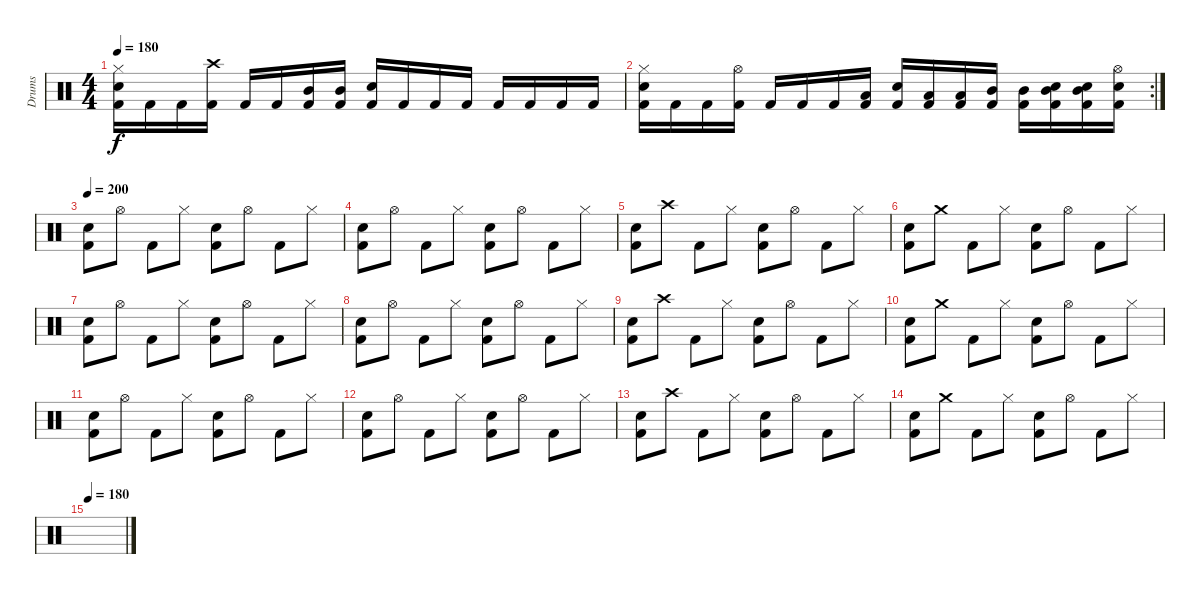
\track ("Drums" "Drums") {instrument percussion}
\staff {score}
\articulation defaults
\ts (4 4)
\tempo 180
\clef neutral
\ks c
("Electric Snare (hit)" "Hi-Hat (closed)" "Kick (hit) 2").16{dy f} "Kick (hit) 2".16 "Kick (hit) 2".16 ("Crash high (hit)" "Kick (hit) 2").16 "Kick (hit) 2".16 "Kick (hit) 2".16 ("Mid Tom (hit)" "Kick (hit) 2").16 ("Mid Tom (hit)" "Kick (hit) 2").16 ("Electric Snare (hit)" "Kick (hit) 2").16 "Kick (hit) 2".16 "Kick (hit) 2".16 "Kick (hit) 2".16 "Kick (hit) 2".16 "Kick (hit) 2".16 "Kick (hit) 2".16 "Kick (hit) 2".16 |
\rc 2
("Electric Snare (hit)" "Hi-Hat (closed)" "Kick (hit) 2").16 "Kick (hit) 2".16 "Kick (hit) 2".16 ("Hi-Hat (open)" "Kick (hit) 2").16 "Kick (hit) 2".16 "Kick (hit) 2".16 "Kick (hit) 2".16 ("Low Tom (hit)" "Kick (hit) 2").16 ("Electric Snare (hit)" "Kick (hit) 2").16 ("Low Tom (hit)" "Kick (hit) 2").16 ("Low Tom (hit)" "Kick (hit) 2").16 ("Mid Tom (hit)" "Kick (hit) 2").16 ("Mid Tom (hit)" "Kick (hit) 2").16 ("Mid Tom (hit)" "Electric Snare (hit)" "Kick (hit) 2").16 ("Mid Tom (hit)" "Electric Snare (hit)" "Kick (hit) 2").16 ("Hi-Hat (open)" "Electric Snare (hit)" "Kick (hit) 2").16 |
\tempo 200
("Electric Snare (hit)" "Kick (hit) 2").8 "Hi-Hat (open)".8 "Kick (hit) 2".8 "Hi-Hat (closed)".8 ("Electric Snare (hit)" "Kick (hit) 2").8 "Hi-Hat (open)".8 "Kick (hit) 2".8 "Hi-Hat (closed)".8 |
("Electric Snare (hit)" "Kick (hit) 2").8 "Hi-Hat (open)".8 "Kick (hit) 2".8 "Hi-Hat (closed)".8 ("Electric Snare (hit)" "Kick (hit) 2").8 "Hi-Hat (open)".8 "Kick (hit) 2".8 "Hi-Hat (closed)".8 |
("Electric Snare (hit)" "Kick (hit) 2").8 "Crash high (hit)".8 "Kick (hit) 2".8 "Hi-Hat (closed)".8 ("Electric Snare (hit)" "Kick (hit) 2").8 "Hi-Hat (open)".8 "Kick (hit) 2".8 "Hi-Hat (closed)".8 |
("Electric Snare (hit)" "Kick (hit) 2").8 "Crash medium (hit)".8 "Kick (hit) 2".8 "Hi-Hat (closed)".8 ("Electric Snare (hit)" "Kick (hit) 2").8 "Hi-Hat (open)".8 "Kick (hit) 2".8 "Hi-Hat (closed)".8 |
("Electric Snare (hit)" "Kick (hit) 2").8 "Hi-Hat (open)".8 "Kick (hit) 2".8 "Hi-Hat (closed)".8 ("Electric Snare (hit)" "Kick (hit) 2").8 "Hi-Hat (open)".8 "Kick (hit) 2".8 "Hi-Hat (closed)".8 |
("Electric Snare (hit)" "Kick (hit) 2").8 "Hi-Hat (open)".8 "Kick (hit) 2".8 "Hi-Hat (closed)".8 ("Electric Snare (hit)" "Kick (hit) 2").8 "Hi-Hat (open)".8 "Kick (hit) 2".8 "Hi-Hat (closed)".8 |
("Electric Snare (hit)" "Kick (hit) 2").8 "Crash high (hit)".8 "Kick (hit) 2".8 "Hi-Hat (closed)".8 ("Electric Snare (hit)" "Kick (hit) 2").8 "Hi-Hat (open)".8 "Kick (hit) 2".8 "Hi-Hat (closed)".8 |
("Electric Snare (hit)" "Kick (hit) 2").8 "Crash medium (hit)".8 "Kick (hit) 2".8 "Hi-Hat (closed)".8 ("Electric Snare (hit)" "Kick (hit) 2").8 "Hi-Hat (open)".8 "Kick (hit) 2".8 "Hi-Hat (closed)".8 |
("Electric Snare (hit)" "Kick (hit) 2").8 "Hi-Hat (open)".8 "Kick (hit) 2".8 "Hi-Hat (closed)".8 ("Electric Snare (hit)" "Kick (hit) 2").8 "Hi-Hat (open)".8 "Kick (hit) 2".8 "Hi-Hat (closed)".8 |
("Electric Snare (hit)" "Kick (hit) 2").8 "Hi-Hat (open)".8 "Kick (hit) 2".8 "Hi-Hat (closed)".8 ("Electric Snare (hit)" "Kick (hit) 2").8 "Hi-Hat (open)".8 "Kick (hit) 2".8 "Hi-Hat (closed)".8 |
("Electric Snare (hit)" "Kick (hit) 2").8 "Crash high (hit)".8 "Kick (hit) 2".8 "Hi-Hat (closed)".8 ("Electric Snare (hit)" "Kick (hit) 2").8 "Hi-Hat (open)".8 "Kick (hit) 2".8 "Hi-Hat (closed)".8 |
("Electric Snare (hit)" "Kick (hit) 2").8 "Crash medium (hit)".8 "Kick (hit) 2".8 "Hi-Hat (closed)".8 ("Electric Snare (hit)" "Kick (hit) 2").8 "Hi-Hat (open)".8 "Kick (hit) 2".8 "Hi-Hat (closed)".8 |
\tempo 180
